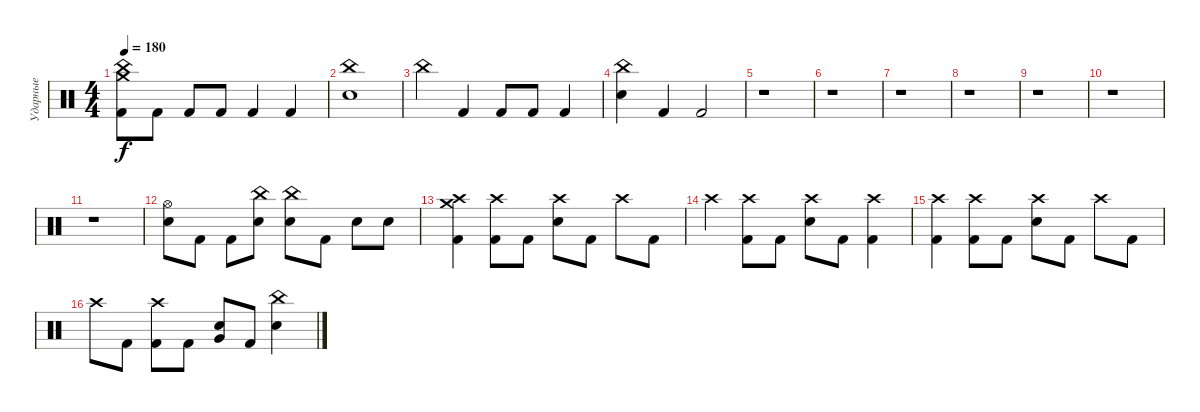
\track ("Ударные" "Ударные") {instrument percussion}
\staff {score}
\articulation defaults
\ts (4 4)
\tempo 180
\clef neutral
\ks c
("China (hit)" "Crash medium (hit)" "Kick (hit) 2").8{dy f} "Kick (hit) 2".8 "Kick (hit) 2".8 "Kick (hit) 2".8 "Kick (hit) 2".4 "Kick (hit) 2".4 |
("China (hit)" "Electric Snare (hit)").1 |
"China (hit)".4 "Kick (hit) 2".4 "Kick (hit) 2".8 "Kick (hit) 2".8 "Kick (hit) 2".4 |
("China (hit)" "Electric Snare (hit)").4 "Kick (hit) 2".4 "Kick (hit) 2".2 |
r.1 |
r.1 |
r.1 |
r.1 |
r.1 |
r.1 |
r.1 |
("Hi-Hat (open)" "Electric Snare (hit)").8 "Kick (hit) 2".8 "Kick (hit) 2".8 ("China (hit)" "Electric Snare (hit)").8 ("China (hit)" "Electric Snare (hit)").8 "Kick (hit) 2".8 "Electric Snare (hit)".8 "Electric Snare (hit)".8 |
("Crash high (hit)" "Crash medium (hit)" "Kick (hit) 2").4 ("Crash high (hit)" "Kick (hit) 2").8 "Kick (hit) 2".8 ("Crash high (hit)" "Electric Snare (hit)").8 "Kick (hit) 2".8 "Crash high (hit)".8 "Kick (hit) 2".8 |
"Crash high (hit)".4 ("Crash high (hit)" "Kick (hit) 2").8 "Kick (hit) 2".8 ("Crash high (hit)" "Electric Snare (hit)").8 "Kick (hit) 2".8 ("Crash high (hit)" "Kick (hit) 2").4 |
("Crash high (hit)" "Kick (hit) 2").4 ("Crash high (hit)" "Kick (hit) 2").8 "Kick (hit) 2".8 ("Crash high (hit)" "Electric Snare (hit)").8 "Kick (hit) 2".8 "Crash high (hit)".8 "Kick (hit) 2".8 |
"Crash high (hit)".8 "Kick (hit) 2".8 ("Crash high (hit)" "Kick (hit) 2").8 "Kick (hit) 2".8 ("Very Low Tom (hit)" "Electric Snare (hit)").8 "Kick (hit) 2".8 ("China (hit)" "Electric Snare (hit)").4
